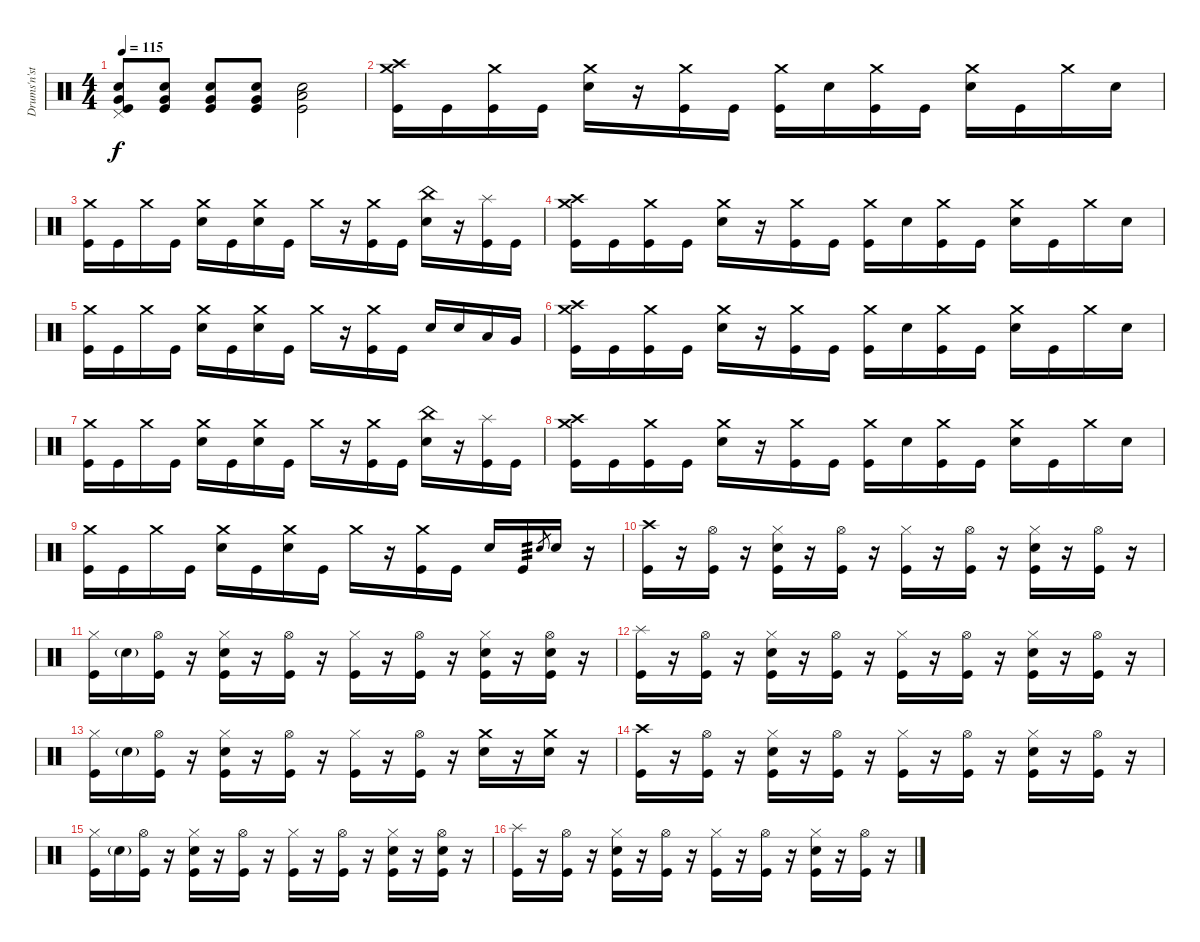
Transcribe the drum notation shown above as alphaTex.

\track ("Drums'n'stuff" "Drums'n'st") {instrument percussion}
\staff {score}
\articulation defaults
\ts (4 4)
\tempo 115
\clef neutral
\ks c
("Pedal Hi-Hat (hit)" "Electric Snare (hit)" "Very Low Tom (hit)" "Kick (hit)").8{dy f} ("Electric Snare (hit)" "Very Low Tom (hit)" "Kick (hit)").8 ("Electric Snare (hit)" "Very Low Tom (hit)" "Kick (hit)").8 ("Electric Snare (hit)" "Very Low Tom (hit)" "Kick (hit)").8 ("Electric Snare (hit)" "Low Floor Tom (hit)" "Kick (hit)").2 |
("Crash medium (hit)" "Crash high (hit)" "Kick (hit)").16 "Kick (hit)".16 ("Crash medium (hit)" "Kick (hit)").16 "Kick (hit)".16 ("Crash medium (hit)" "Electric Snare (hit)").16 r.16 ("Crash medium (hit)" "Kick (hit)").16 "Kick (hit)".16 ("Crash medium (hit)" "Kick (hit)").16 "Electric Snare (hit)".16 ("Crash medium (hit)" "Kick (hit)").16 "Kick (hit)".16 ("Crash medium (hit)" "Electric Snare (hit)").16 "Kick (hit)".16 "Crash medium (hit)".16 "Electric Snare (hit)".16 |
("Crash medium (hit)" "Kick (hit)").16 "Kick (hit)".16 "Crash medium (hit)".16 "Kick (hit)".16 ("Crash medium (hit)" "Electric Snare (hit)").16 "Kick (hit)".16 ("Crash medium (hit)" "Electric Snare (hit)").16 "Kick (hit)".16 "Crash medium (hit)".16 r.16 ("Crash medium (hit)" "Kick (hit)").16 "Kick (hit)".16 ("China (hit)" "Electric Snare (hit)").16 r.16 ("Splash (hit)" "Kick (hit)").16 "Kick (hit)".16 |
("Crash medium (hit)" "Crash high (hit)" "Kick (hit)").16 "Kick (hit)".16 ("Crash medium (hit)" "Kick (hit)").16 "Kick (hit)".16 ("Crash medium (hit)" "Electric Snare (hit)").16 r.16 ("Crash medium (hit)" "Kick (hit)").16 "Kick (hit)".16 ("Crash medium (hit)" "Kick (hit)").16 "Electric Snare (hit)".16 ("Crash medium (hit)" "Kick (hit)").16 "Kick (hit)".16 ("Crash medium (hit)" "Electric Snare (hit)").16 "Kick (hit)".16 "Crash medium (hit)".16 "Electric Snare (hit)".16 |
("Crash medium (hit)" "Kick (hit)").16 "Kick (hit)".16 "Crash medium (hit)".16 "Kick (hit)".16 ("Crash medium (hit)" "Electric Snare (hit)").16 "Kick (hit)".16 ("Crash medium (hit)" "Electric Snare (hit)").16 "Kick (hit)".16 "Crash medium (hit)".16 r.16 ("Crash medium (hit)" "Kick (hit)").16 "Kick (hit)".16 "Electric Snare (hit)".16 "Electric Snare (hit)".16 "Low Tom (hit)".16 "Very Low Tom (hit)".16 |
("Crash medium (hit)" "Crash high (hit)" "Kick (hit)").16 "Kick (hit)".16 ("Crash medium (hit)" "Kick (hit)").16 "Kick (hit)".16 ("Crash medium (hit)" "Electric Snare (hit)").16 r.16 ("Crash medium (hit)" "Kick (hit)").16 "Kick (hit)".16 ("Crash medium (hit)" "Kick (hit)").16 "Electric Snare (hit)".16 ("Crash medium (hit)" "Kick (hit)").16 "Kick (hit)".16 ("Crash medium (hit)" "Electric Snare (hit)").16 "Kick (hit)".16 "Crash medium (hit)".16 "Electric Snare (hit)".16 |
("Crash medium (hit)" "Kick (hit)").16 "Kick (hit)".16 "Crash medium (hit)".16 "Kick (hit)".16 ("Crash medium (hit)" "Electric Snare (hit)").16 "Kick (hit)".16 ("Crash medium (hit)" "Electric Snare (hit)").16 "Kick (hit)".16 "Crash medium (hit)".16 r.16 ("Crash medium (hit)" "Kick (hit)").16 "Kick (hit)".16 ("China (hit)" "Electric Snare (hit)").16 r.16 ("Splash (hit)" "Kick (hit)").16 "Kick (hit)".16 |
("Crash medium (hit)" "Crash high (hit)" "Kick (hit)").16 "Kick (hit)".16 ("Crash medium (hit)" "Kick (hit)").16 "Kick (hit)".16 ("Crash medium (hit)" "Electric Snare (hit)").16 r.16 ("Crash medium (hit)" "Kick (hit)").16 "Kick (hit)".16 ("Crash medium (hit)" "Kick (hit)").16 "Electric Snare (hit)".16 ("Crash medium (hit)" "Kick (hit)").16 "Kick (hit)".16 ("Crash medium (hit)" "Electric Snare (hit)").16 "Kick (hit)".16 "Crash medium (hit)".16 "Electric Snare (hit)".16 |
("Crash medium (hit)" "Kick (hit)").16 "Kick (hit)".16 "Crash medium (hit)".16 "Kick (hit)".16 ("Crash medium (hit)" "Electric Snare (hit)").16 "Kick (hit)".16 ("Crash medium (hit)" "Electric Snare (hit)").16 "Kick (hit)".16 "Crash medium (hit)".16 r.16 ("Crash medium (hit)" "Kick (hit)").16 "Kick (hit)".16 "Electric Snare (hit)".16 "Kick (hit)".16{tp 3} "Electric Snare (hit)".8{gr} "Electric Snare (hit)".16 r.16 |
("Crash high (hit)" "Kick (hit)").16 r.16 ("Hi-Hat (open)" "Kick (hit)").16 r.16 ("Hi-Hat (closed)" "Electric Snare (hit)" "Kick (hit)").16 r.16 ("Hi-Hat (open)" "Kick (hit)").16 r.16 ("Hi-Hat (closed)" "Kick (hit)").16 r.16 ("Hi-Hat (open)" "Kick (hit)").16 r.16 ("Hi-Hat (closed)" "Electric Snare (hit)" "Kick (hit)").16 r.16 ("Hi-Hat (open)" "Kick (hit)").16 r.16 |
("Hi-Hat (closed)" "Kick (hit)").16 "Electric Snare (hit)"{g}.16 ("Hi-Hat (open)" "Kick (hit)").16 r.16 ("Hi-Hat (closed)" "Electric Snare (hit)" "Kick (hit)").16 r.16 ("Hi-Hat (open)" "Kick (hit)").16 r.16 ("Hi-Hat (closed)" "Kick (hit)").16 r.16 ("Hi-Hat (open)" "Kick (hit)").16 r.16 ("Hi-Hat (closed)" "Electric Snare (hit)" "Kick (hit)").16 r.16 ("Hi-Hat (open)" "Electric Snare (hit)" "Kick (hit)").16 r.16 |
("Splash (hit)" "Kick (hit)").16 r.16 ("Hi-Hat (open)" "Kick (hit)").16 r.16 ("Hi-Hat (closed)" "Electric Snare (hit)" "Kick (hit)").16 r.16 ("Hi-Hat (open)" "Kick (hit)").16 r.16 ("Hi-Hat (closed)" "Kick (hit)").16 r.16 ("Hi-Hat (open)" "Kick (hit)").16 r.16 ("Hi-Hat (closed)" "Electric Snare (hit)" "Kick (hit)").16 r.16 ("Hi-Hat (open)" "Kick (hit)").16 r.16 |
("Hi-Hat (closed)" "Kick (hit)").16 "Electric Snare (hit)"{g}.16 ("Hi-Hat (open)" "Kick (hit)").16 r.16 ("Hi-Hat (closed)" "Electric Snare (hit)" "Kick (hit)").16 r.16 ("Hi-Hat (open)" "Kick (hit)").16 r.16 ("Hi-Hat (closed)" "Kick (hit)").16 r.16 ("Hi-Hat (open)" "Kick (hit)").16 r.16 ("Crash medium (hit)" "Electric Snare (hit)").16 r.16 ("Crash medium (hit)" "Electric Snare (hit)").16 r.16 |
("Crash high (hit)" "Kick (hit)").16 r.16 ("Hi-Hat (open)" "Kick (hit)").16 r.16 ("Hi-Hat (closed)" "Electric Snare (hit)" "Kick (hit)").16 r.16 ("Hi-Hat (open)" "Kick (hit)").16 r.16 ("Hi-Hat (closed)" "Kick (hit)").16 r.16 ("Hi-Hat (open)" "Kick (hit)").16 r.16 ("Hi-Hat (closed)" "Electric Snare (hit)" "Kick (hit)").16 r.16 ("Hi-Hat (open)" "Kick (hit)").16 r.16 |
("Hi-Hat (closed)" "Kick (hit)").16 "Electric Snare (hit)"{g}.16 ("Hi-Hat (open)" "Kick (hit)").16 r.16 ("Hi-Hat (closed)" "Electric Snare (hit)" "Kick (hit)").16 r.16 ("Hi-Hat (open)" "Kick (hit)").16 r.16 ("Hi-Hat (closed)" "Kick (hit)").16 r.16 ("Hi-Hat (open)" "Kick (hit)").16 r.16 ("Hi-Hat (closed)" "Electric Snare (hit)" "Kick (hit)").16 r.16 ("Hi-Hat (open)" "Electric Snare (hit)" "Kick (hit)").16 r.16 |
("Splash (hit)" "Kick (hit)").16 r.16 ("Hi-Hat (open)" "Kick (hit)").16 r.16 ("Hi-Hat (closed)" "Electric Snare (hit)" "Kick (hit)").16 r.16 ("Hi-Hat (open)" "Kick (hit)").16 r.16 ("Hi-Hat (closed)" "Kick (hit)").16 r.16 ("Hi-Hat (open)" "Kick (hit)").16 r.16 ("Hi-Hat (closed)" "Electric Snare (hit)" "Kick (hit)").16 r.16 ("Hi-Hat (open)" "Kick (hit)").16 r.16
